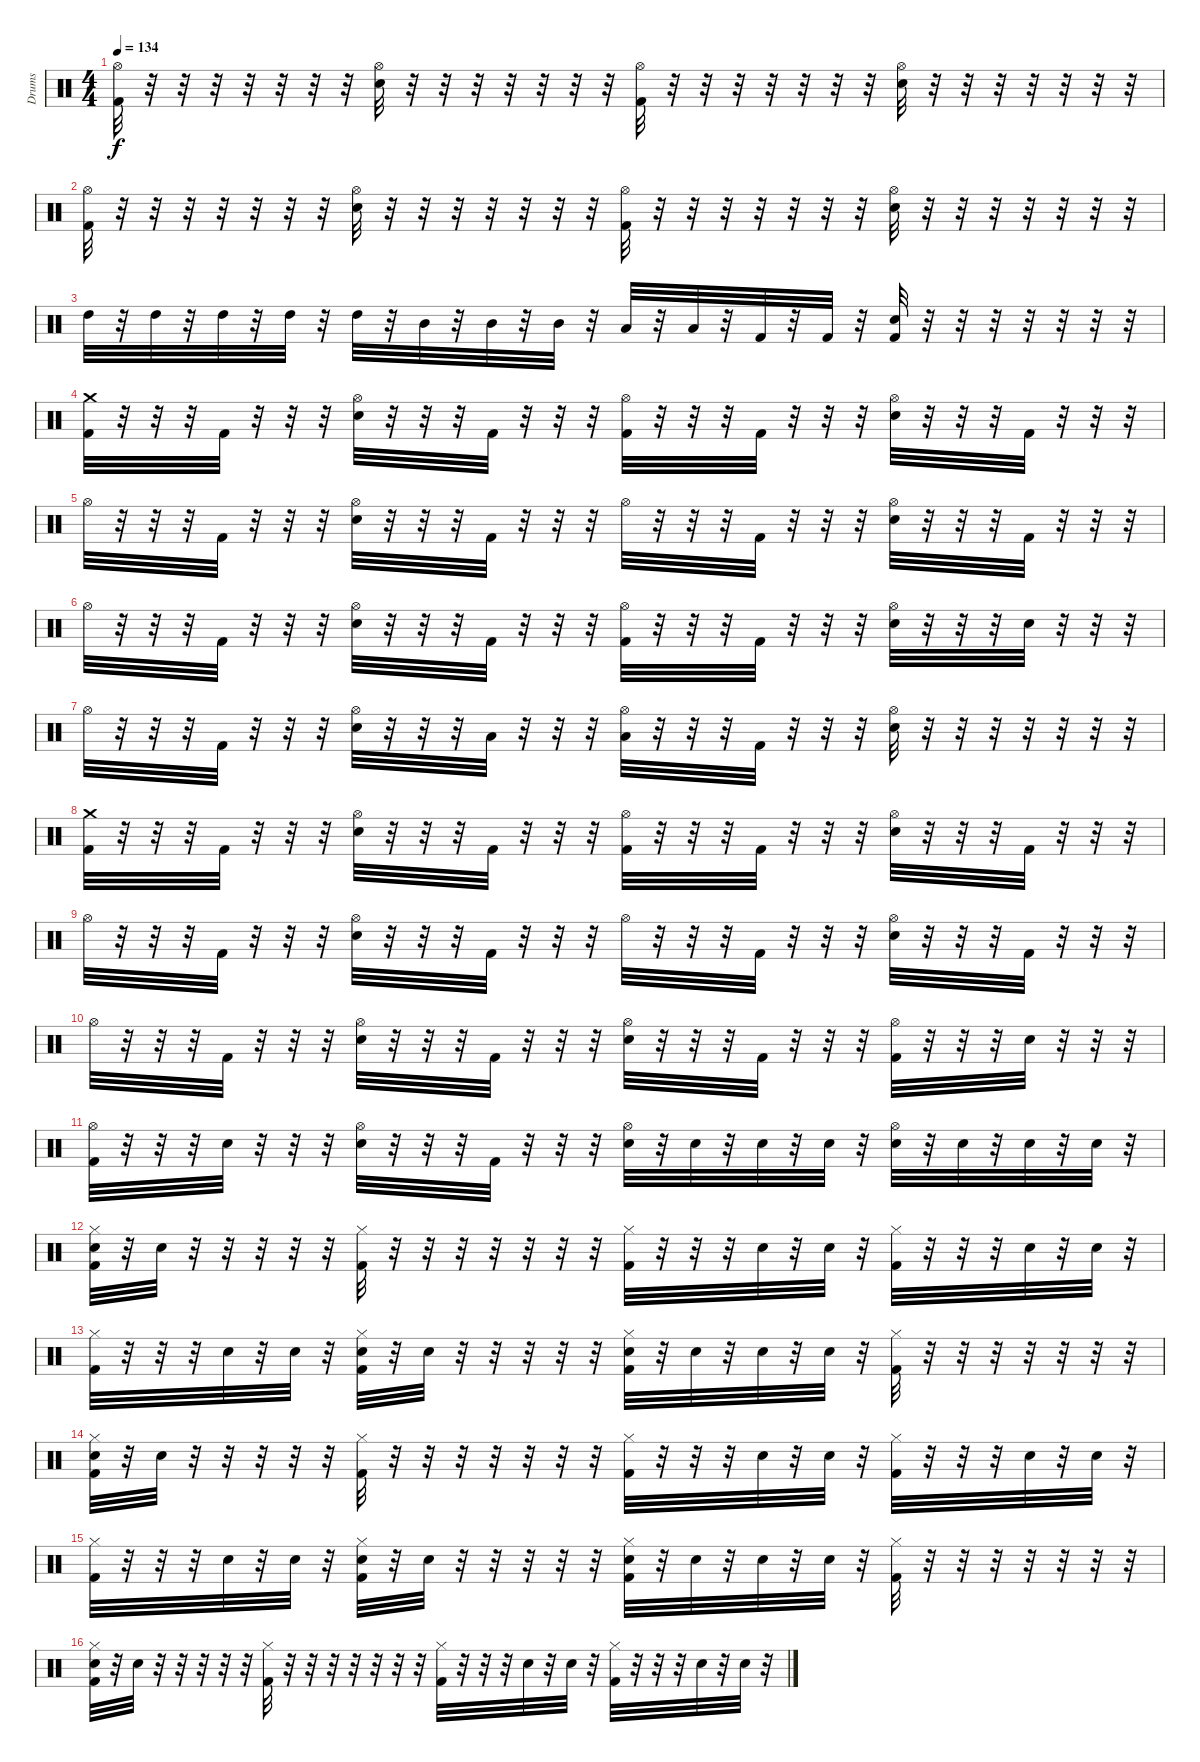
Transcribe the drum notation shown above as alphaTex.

\track ("Drums" "Drums") {instrument percussion}
\staff {score}
\articulation defaults
\ts (4 4)
\tempo 134
\clef neutral
\ks c
("Kick (hit) 2" "Hi-Hat (open)").32{dy f} r.32 r.32 r.32 r.32 r.32 r.32 r.32 ("Electric Snare (hit)" "Hi-Hat (open)").32 r.32 r.32 r.32 r.32 r.32 r.32 r.32 ("Kick (hit) 2" "Hi-Hat (open)").32 r.32 r.32 r.32 r.32 r.32 r.32 r.32 ("Electric Snare (hit)" "Hi-Hat (open)").32 r.32 r.32 r.32 r.32 r.32 r.32 r.32 |
("Kick (hit) 2" "Hi-Hat (open)").32 r.32 r.32 r.32 r.32 r.32 r.32 r.32 ("Electric Snare (hit)" "Hi-Hat (open)").32 r.32 r.32 r.32 r.32 r.32 r.32 r.32 ("Kick (hit) 2" "Hi-Hat (open)").32 r.32 r.32 r.32 r.32 r.32 r.32 r.32 ("Electric Snare (hit)" "Hi-Hat (open)").32 r.32 r.32 r.32 r.32 r.32 r.32 r.32 |
"High Tom (hit)".32 r.32 "High Tom (hit)".32 r.32 "High Tom (hit)".32 r.32 "High Tom (hit)".32 r.32 "High Tom (hit)".32 r.32 "Mid Tom (hit)".32 r.32 "Mid Tom (hit)".32 r.32 "Mid Tom (hit)".32 r.32 "Low Tom (hit)".32 r.32 "Low Tom (hit)".32 r.32 "Kick (hit) 2".32 r.32 "Kick (hit) 2".32 r.32 ("Electric Snare (hit)" "Kick (hit) 2").32 r.32 r.32 r.32 r.32 r.32 r.32 r.32 |
("Kick (hit) 2" "Crash medium (hit)").32 r.32 r.32 r.32 "Kick (hit) 2".32 r.32 r.32 r.32 ("Electric Snare (hit)" "Hi-Hat (open)").32 r.32 r.32 r.32 "Kick (hit) 2".32 r.32 r.32 r.32 ("Kick (hit) 2" "Hi-Hat (open)").32 r.32 r.32 r.32 "Kick (hit) 2".32 r.32 r.32 r.32 ("Electric Snare (hit)" "Hi-Hat (open)").32 r.32 r.32 r.32 "Kick (hit) 2".32 r.32 r.32 r.32 |
"Hi-Hat (open)".32 r.32 r.32 r.32 "Kick (hit) 2".32 r.32 r.32 r.32 ("Electric Snare (hit)" "Hi-Hat (open)").32 r.32 r.32 r.32 "Kick (hit) 2".32 r.32 r.32 r.32 "Hi-Hat (open)".32 r.32 r.32 r.32 "Kick (hit) 2".32 r.32 r.32 r.32 ("Electric Snare (hit)" "Hi-Hat (open)").32 r.32 r.32 r.32 "Kick (hit) 2".32 r.32 r.32 r.32 |
"Hi-Hat (open)".32 r.32 r.32 r.32 "Kick (hit) 2".32 r.32 r.32 r.32 ("Electric Snare (hit)" "Hi-Hat (open)").32 r.32 r.32 r.32 "Kick (hit) 2".32 r.32 r.32 r.32 ("Kick (hit) 2" "Hi-Hat (open)").32 r.32 r.32 r.32 "Kick (hit) 2".32 r.32 r.32 r.32 ("Electric Snare (hit)" "Hi-Hat (open)").32 r.32 r.32 r.32 "Electric Snare (hit)".32 r.32 r.32 r.32 |
"Hi-Hat (open)".32 r.32 r.32 r.32 "Kick (hit) 2".32 r.32 r.32 r.32 ("Electric Snare (hit)" "Hi-Hat (open)").32 r.32 r.32 r.32 "Low Tom (hit)".32 r.32 r.32 r.32 ("Low Floor Tom (hit)" "Hi-Hat (open)").32 r.32 r.32 r.32 "Kick (hit) 2".32 r.32 r.32 r.32 ("Electric Snare (hit)" "Hi-Hat (open)").32 r.32 r.32 r.32 r.32 r.32 r.32 r.32 |
("Kick (hit) 2" "Crash medium (hit)").32 r.32 r.32 r.32 "Kick (hit) 2".32 r.32 r.32 r.32 ("Electric Snare (hit)" "Hi-Hat (open)").32 r.32 r.32 r.32 "Kick (hit) 2".32 r.32 r.32 r.32 ("Kick (hit) 2" "Hi-Hat (open)").32 r.32 r.32 r.32 "Kick (hit) 2".32 r.32 r.32 r.32 ("Electric Snare (hit)" "Hi-Hat (open)").32 r.32 r.32 r.32 "Kick (hit) 2".32 r.32 r.32 r.32 |
"Hi-Hat (open)".32 r.32 r.32 r.32 "Kick (hit) 2".32 r.32 r.32 r.32 ("Electric Snare (hit)" "Hi-Hat (open)").32 r.32 r.32 r.32 "Kick (hit) 2".32 r.32 r.32 r.32 "Hi-Hat (open)".32 r.32 r.32 r.32 "Kick (hit) 2".32 r.32 r.32 r.32 ("Electric Snare (hit)" "Hi-Hat (open)").32 r.32 r.32 r.32 "Kick (hit) 2".32 r.32 r.32 r.32 |
"Hi-Hat (open)".32 r.32 r.32 r.32 "Kick (hit) 2".32 r.32 r.32 r.32 ("Electric Snare (hit)" "Hi-Hat (open)").32 r.32 r.32 r.32 "Kick (hit) 2".32 r.32 r.32 r.32 ("Electric Snare (hit)" "Hi-Hat (open)").32 r.32 r.32 r.32 "Kick (hit) 2".32 r.32 r.32 r.32 ("Kick (hit) 2" "Hi-Hat (open)").32 r.32 r.32 r.32 "Electric Snare (hit)".32 r.32 r.32 r.32 |
("Kick (hit) 2" "Hi-Hat (open)").32 r.32 r.32 r.32 "Electric Snare (hit)".32 r.32 r.32 r.32 ("Electric Snare (hit)" "Hi-Hat (open)").32 r.32 r.32 r.32 "Kick (hit) 2".32 r.32 r.32 r.32 ("Electric Snare (hit)" "Hi-Hat (open)").32 r.32 "Electric Snare (hit)".32 r.32 "Electric Snare (hit)".32 r.32 "Electric Snare (hit)".32 r.32 ("Electric Snare (hit)" "Hi-Hat (open)").32 r.32 "Electric Snare (hit)".32 r.32 "Electric Snare (hit)".32 r.32 "Electric Snare (hit)".32 r.32 |
("Kick (hit) 2" "Electric Snare (hit)" "Hi-Hat (closed)").32 r.32 "Electric Snare (hit)".32 r.32 r.32 r.32 r.32 r.32 ("Kick (hit) 2" "Hi-Hat (closed)").32 r.32 r.32 r.32 r.32 r.32 r.32 r.32 ("Kick (hit) 2" "Hi-Hat (closed)").32 r.32 r.32 r.32 "Electric Snare (hit)".32 r.32 "Electric Snare (hit)".32 r.32 ("Kick (hit) 2" "Hi-Hat (closed)").32 r.32 r.32 r.32 "Electric Snare (hit)".32 r.32 "Electric Snare (hit)".32 r.32 |
("Kick (hit) 2" "Hi-Hat (closed)").32 r.32 r.32 r.32 "Electric Snare (hit)".32 r.32 "Electric Snare (hit)".32 r.32 ("Kick (hit) 2" "Electric Snare (hit)" "Hi-Hat (closed)").32 r.32 "Electric Snare (hit)".32 r.32 r.32 r.32 r.32 r.32 ("Kick (hit) 2" "Electric Snare (hit)" "Hi-Hat (closed)").32 r.32 "Electric Snare (hit)".32 r.32 "Electric Snare (hit)".32 r.32 "Electric Snare (hit)".32 r.32 ("Kick (hit) 2" "Hi-Hat (closed)").32 r.32 r.32 r.32 r.32 r.32 r.32 r.32 |
("Kick (hit) 2" "Electric Snare (hit)" "Hi-Hat (closed)").32 r.32 "Electric Snare (hit)".32 r.32 r.32 r.32 r.32 r.32 ("Kick (hit) 2" "Hi-Hat (closed)").32 r.32 r.32 r.32 r.32 r.32 r.32 r.32 ("Kick (hit) 2" "Hi-Hat (closed)").32 r.32 r.32 r.32 "Electric Snare (hit)".32 r.32 "Electric Snare (hit)".32 r.32 ("Kick (hit) 2" "Hi-Hat (closed)").32 r.32 r.32 r.32 "Electric Snare (hit)".32 r.32 "Electric Snare (hit)".32 r.32 |
("Kick (hit) 2" "Hi-Hat (closed)").32 r.32 r.32 r.32 "Electric Snare (hit)".32 r.32 "Electric Snare (hit)".32 r.32 ("Kick (hit) 2" "Electric Snare (hit)" "Hi-Hat (closed)").32 r.32 "Electric Snare (hit)".32 r.32 r.32 r.32 r.32 r.32 ("Kick (hit) 2" "Electric Snare (hit)" "Hi-Hat (closed)").32 r.32 "Electric Snare (hit)".32 r.32 "Electric Snare (hit)".32 r.32 "Electric Snare (hit)".32 r.32 ("Kick (hit) 2" "Hi-Hat (closed)").32 r.32 r.32 r.32 r.32 r.32 r.32 r.32 |
("Kick (hit) 2" "Electric Snare (hit)" "Hi-Hat (closed)").32 r.32 "Electric Snare (hit)".32 r.32 r.32 r.32 r.32 r.32 ("Kick (hit) 2" "Hi-Hat (closed)").32 r.32 r.32 r.32 r.32 r.32 r.32 r.32 ("Kick (hit) 2" "Hi-Hat (closed)").32 r.32 r.32 r.32 "Electric Snare (hit)".32 r.32 "Electric Snare (hit)".32 r.32 ("Kick (hit) 2" "Hi-Hat (closed)").32 r.32 r.32 r.32 "Electric Snare (hit)".32 r.32 "Electric Snare (hit)".32 r.32
